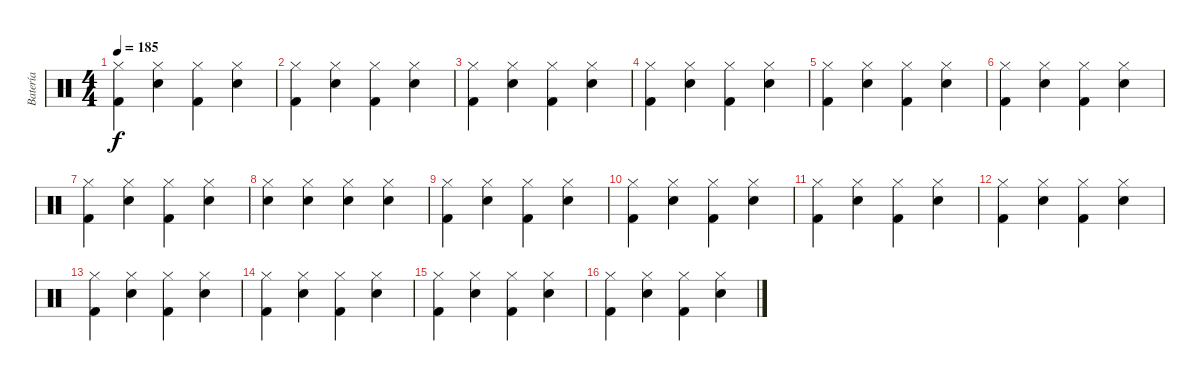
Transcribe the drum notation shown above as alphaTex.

\track ("Batería" "Batería") {instrument percussion}
\staff {score}
\articulation defaults
\ts (4 4)
\tempo 185
\clef neutral
\ks c
("Hi-Hat (closed)" "Kick (hit) 2").4{dy f} ("Hi-Hat (closed)" "Snare (hit) 2").4 ("Hi-Hat (closed)" "Kick (hit) 2").4 ("Hi-Hat (closed)" "Snare (hit) 2").4 |
("Hi-Hat (closed)" "Kick (hit) 2").4 ("Hi-Hat (closed)" "Snare (hit) 2").4 ("Hi-Hat (closed)" "Kick (hit) 2").4 ("Hi-Hat (closed)" "Snare (hit) 2").4 |
("Hi-Hat (closed)" "Kick (hit) 2").4 ("Hi-Hat (closed)" "Snare (hit) 2").4 ("Hi-Hat (closed)" "Kick (hit) 2").4 ("Hi-Hat (closed)" "Snare (hit) 2").4 |
("Hi-Hat (closed)" "Kick (hit) 2").4 ("Hi-Hat (closed)" "Snare (hit) 2").4 ("Hi-Hat (closed)" "Kick (hit) 2").4 ("Hi-Hat (closed)" "Snare (hit) 2").4 |
("Hi-Hat (closed)" "Kick (hit) 2").4 ("Hi-Hat (closed)" "Snare (hit) 2").4 ("Hi-Hat (closed)" "Kick (hit) 2").4 ("Hi-Hat (closed)" "Snare (hit) 2").4 |
("Hi-Hat (closed)" "Kick (hit) 2").4 ("Hi-Hat (closed)" "Snare (hit) 2").4 ("Hi-Hat (closed)" "Kick (hit) 2").4 ("Hi-Hat (closed)" "Snare (hit) 2").4 |
("Hi-Hat (closed)" "Kick (hit) 2").4 ("Hi-Hat (closed)" "Snare (hit) 2").4 ("Hi-Hat (closed)" "Kick (hit) 2").4 ("Hi-Hat (closed)" "Snare (hit) 2").4 |
("Hi-Hat (closed)" "Snare (hit) 2").4 ("Hi-Hat (closed)" "Snare (hit) 2").4 ("Hi-Hat (closed)" "Snare (hit) 2").4 ("Hi-Hat (closed)" "Snare (hit) 2").4 |
("Hi-Hat (closed)" "Kick (hit) 2").4 ("Hi-Hat (closed)" "Snare (hit) 2").4 ("Hi-Hat (closed)" "Kick (hit) 2").4 ("Hi-Hat (closed)" "Snare (hit) 2").4 |
("Hi-Hat (closed)" "Kick (hit) 2").4 ("Hi-Hat (closed)" "Snare (hit) 2").4 ("Hi-Hat (closed)" "Kick (hit) 2").4 ("Hi-Hat (closed)" "Snare (hit) 2").4 |
("Hi-Hat (closed)" "Kick (hit) 2").4 ("Hi-Hat (closed)" "Snare (hit) 2").4 ("Hi-Hat (closed)" "Kick (hit) 2").4 ("Hi-Hat (closed)" "Snare (hit) 2").4 |
("Hi-Hat (closed)" "Kick (hit) 2").4 ("Hi-Hat (closed)" "Snare (hit) 2").4 ("Hi-Hat (closed)" "Kick (hit) 2").4 ("Hi-Hat (closed)" "Snare (hit) 2").4 |
("Hi-Hat (closed)" "Kick (hit) 2").4 ("Hi-Hat (closed)" "Snare (hit) 2").4 ("Hi-Hat (closed)" "Kick (hit) 2").4 ("Hi-Hat (closed)" "Snare (hit) 2").4 |
("Hi-Hat (closed)" "Kick (hit) 2").4 ("Hi-Hat (closed)" "Snare (hit) 2").4 ("Hi-Hat (closed)" "Kick (hit) 2").4 ("Hi-Hat (closed)" "Snare (hit) 2").4 |
("Hi-Hat (closed)" "Kick (hit) 2").4 ("Hi-Hat (closed)" "Snare (hit) 2").4 ("Hi-Hat (closed)" "Kick (hit) 2").4 ("Hi-Hat (closed)" "Snare (hit) 2").4 |
("Hi-Hat (closed)" "Kick (hit) 2").4 ("Hi-Hat (closed)" "Snare (hit) 2").4 ("Hi-Hat (closed)" "Kick (hit) 2").4 ("Hi-Hat (closed)" "Snare (hit) 2").4
